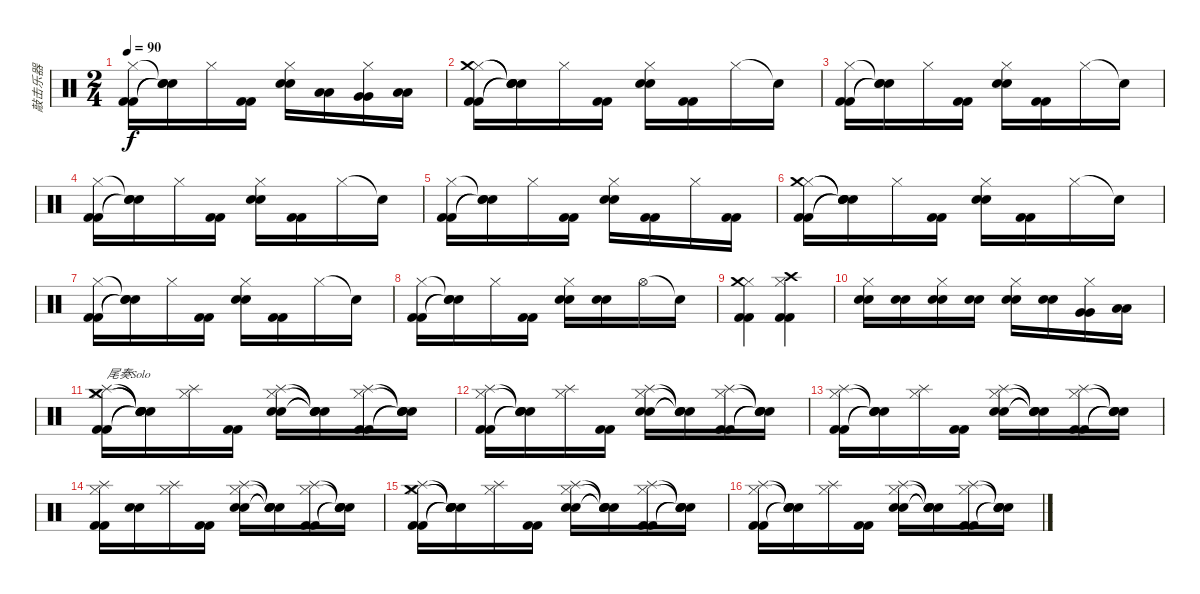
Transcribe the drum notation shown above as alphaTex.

\track ("敲击乐器" "敲击乐器") {instrument percussion}
\staff {score}
\articulation defaults
\ts (2 4)
\tempo 90
\clef neutral
\ks c
("Hi-Hat (closed)" "Kick (hit) 2" "Kick (hit) 2").16{dy f} ("Snare (hit)"{t} "Snare (hit)"{t} "Snare (hit)"{t}).16 "Hi-Hat (closed)".16 ("Kick (hit) 2" "Kick (hit) 2").16 ("Hi-Hat (closed)" "Snare (hit) 2" "Snare (hit) 2").16 ("Low Tom (hit)" "Low Tom (hit)").16 ("Hi-Hat (closed)" "Very Low Tom (hit)" "Very Low Tom (hit)").16 ("Low Floor Tom (hit)" "Low Floor Tom (hit)").16 |
("Hi-Hat (closed)" "Crash medium (hit)" "Kick (hit) 2" "Kick (hit) 2").16 ("Snare (hit)"{t} "Snare (hit)"{t} "Snare (hit)"{t} "Snare (hit)"{t}).16 "Hi-Hat (closed)".16 ("Kick (hit) 2" "Kick (hit) 2").16 ("Hi-Hat (closed)" "Electric Snare (hit)" "Electric Snare (hit)").16 ("Kick (hit) 2" "Kick (hit) 2").16 "Hi-Hat (closed)".16 "Snare (hit)"{t}.16 |
("Hi-Hat (closed)" "Kick (hit) 2" "Kick (hit) 2").16 ("Snare (hit)"{t} "Snare (hit)"{t} "Snare (hit)"{t}).16 "Hi-Hat (closed)".16 ("Kick (hit) 2" "Kick (hit) 2").16 ("Hi-Hat (closed)" "Electric Snare (hit)" "Electric Snare (hit)").16 ("Kick (hit) 2" "Kick (hit) 2").16 "Hi-Hat (closed)".16 "Snare (hit)"{t}.16 |
("Hi-Hat (closed)" "Kick (hit) 2" "Kick (hit) 2").16 ("Snare (hit)"{t} "Snare (hit)"{t} "Snare (hit)"{t}).16 "Hi-Hat (closed)".16 ("Kick (hit) 2" "Kick (hit) 2").16 ("Hi-Hat (closed)" "Electric Snare (hit)" "Electric Snare (hit)").16 ("Kick (hit) 2" "Kick (hit) 2").16 "Hi-Hat (closed)".16 "Snare (hit)"{t}.16 |
("Hi-Hat (closed)" "Kick (hit) 2" "Kick (hit) 2").16 ("Snare (hit)"{t} "Snare (hit)"{t} "Snare (hit)"{t}).16 "Hi-Hat (closed)".16 ("Kick (hit) 2" "Kick (hit) 2").16 ("Hi-Hat (closed)" "Electric Snare (hit)" "Electric Snare (hit)").16 ("Kick (hit) 2" "Kick (hit) 2").16 "Hi-Hat (closed)".16 ("Kick (hit) 2" "Kick (hit) 2").16 |
("Hi-Hat (closed)" "Crash medium (hit)" "Kick (hit) 2" "Kick (hit) 2").16 ("Snare (hit)"{t} "Snare (hit)"{t} "Snare (hit)"{t} "Snare (hit)"{t}).16 "Hi-Hat (closed)".16 ("Kick (hit) 2" "Kick (hit) 2").16 ("Hi-Hat (closed)" "Electric Snare (hit)" "Electric Snare (hit)").16 ("Kick (hit) 2" "Kick (hit) 2").16 "Hi-Hat (closed)".16 "Snare (hit)"{t}.16 |
("Hi-Hat (closed)" "Kick (hit) 2" "Kick (hit) 2").16 ("Snare (hit)"{t} "Snare (hit)"{t} "Snare (hit)"{t}).16 "Hi-Hat (closed)".16 ("Kick (hit) 2" "Kick (hit) 2").16 ("Hi-Hat (closed)" "Electric Snare (hit)" "Electric Snare (hit)").16 ("Kick (hit) 2" "Kick (hit) 2").16 "Hi-Hat (closed)".16 "Snare (hit)"{t}.16 |
("Hi-Hat (closed)" "Kick (hit) 2" "Kick (hit) 2").16 ("Snare (hit)"{t} "Snare (hit)"{t} "Snare (hit)"{t}).16 "Hi-Hat (closed)".16 ("Kick (hit) 2" "Kick (hit) 2").16 ("Hi-Hat (closed)" "Snare (hit) 2" "Snare (hit) 2").16 ("Snare (hit) 2" "Snare (hit) 2").16 "Hi-Hat (open)".16 "Snare (hit)"{t}.16 |
("Hi-Hat (closed)" "Crash medium (hit)" "Kick (hit) 2" "Kick (hit) 2").4 ("Hi-Hat (closed)" "Crash high (hit)" "Kick (hit) 2" "Kick (hit) 2").4 |
("Hi-Hat (closed)" "Snare (hit) 2" "Snare (hit) 2").16 ("Snare (hit) 2" "Snare (hit) 2").16 ("Hi-Hat (closed)" "Snare (hit) 2" "Snare (hit) 2").16 ("Snare (hit) 2" "Snare (hit) 2").16 ("Hi-Hat (closed)" "Snare (hit) 2" "Snare (hit) 2").16 ("Snare (hit) 2" "Snare (hit) 2").16 ("Hi-Hat (closed)" "Very Low Tom (hit)" "Very Low Tom (hit)").16 ("Low Floor Tom (hit)" "Low Floor Tom (hit)").16 |
("Hi-Hat (closed)" "Splash (hit)" "Crash medium (hit)" "Kick (hit) 2" "Kick (hit) 2").16{txt "尾奏Solo"} ("Snare (hit)"{t} "Snare (hit)"{t} "Snare (hit)"{t} "Snare (hit)"{t} "Snare (hit)"{t}).16 ("Hi-Hat (closed)" "Splash (hit)").16 ("Kick (hit) 2" "Kick (hit) 2").16 ("Hi-Hat (closed)" "Splash (hit)" "Electric Snare (hit)" "Electric Snare (hit)").16 ("Snare (hit)"{t} "Snare (hit)"{t} "Snare (hit)"{t} "Snare (hit)"{t}).16 ("Hi-Hat (closed)" "Splash (hit)" "Kick (hit) 2" "Kick (hit) 2").16 ("Snare (hit)"{t} "Snare (hit)"{t} "Snare (hit)"{t} "Snare (hit)"{t}).16 |
("Hi-Hat (closed)" "Splash (hit)" "Kick (hit) 2" "Kick (hit) 2").16 ("Snare (hit)"{t} "Snare (hit)"{t} "Snare (hit)"{t} "Snare (hit)"{t}).16 ("Hi-Hat (closed)" "Splash (hit)").16 ("Kick (hit) 2" "Kick (hit) 2").16 ("Hi-Hat (closed)" "Splash (hit)" "Electric Snare (hit)" "Electric Snare (hit)").16 ("Snare (hit)"{t} "Snare (hit)"{t} "Snare (hit)"{t} "Snare (hit)"{t}).16 ("Hi-Hat (closed)" "Splash (hit)" "Kick (hit) 2" "Kick (hit) 2").16 ("Snare (hit)"{t} "Snare (hit)"{t} "Snare (hit)"{t} "Snare (hit)"{t}).16 |
("Hi-Hat (closed)" "Splash (hit)" "Kick (hit) 2" "Kick (hit) 2").16 ("Snare (hit)"{t} "Snare (hit)"{t} "Snare (hit)"{t} "Snare (hit)"{t}).16 ("Hi-Hat (closed)" "Splash (hit)").16 ("Kick (hit) 2" "Kick (hit) 2").16 ("Hi-Hat (closed)" "Splash (hit)" "Electric Snare (hit)" "Electric Snare (hit)").16 ("Snare (hit)"{t} "Snare (hit)"{t} "Snare (hit)"{t} "Snare (hit)"{t}).16 ("Hi-Hat (closed)" "Splash (hit)" "Kick (hit) 2" "Kick (hit) 2").16 ("Snare (hit)"{t} "Snare (hit)"{t} "Snare (hit)"{t} "Snare (hit)"{t}).16 |
("Hi-Hat (closed)" "Splash (hit)" "Kick (hit) 2" "Kick (hit) 2").16 ("Electric Snare (hit)" "Electric Snare (hit)").16 ("Hi-Hat (closed)" "Splash (hit)").16 ("Kick (hit) 2" "Kick (hit) 2").16 ("Hi-Hat (closed)" "Splash (hit)" "Electric Snare (hit)" "Electric Snare (hit)").16 ("Snare (hit)"{t} "Snare (hit)"{t} "Snare (hit)"{t} "Snare (hit)"{t}).16 ("Hi-Hat (closed)" "Splash (hit)" "Kick (hit) 2" "Kick (hit) 2").16 ("Snare (hit)"{t} "Snare (hit)"{t} "Snare (hit)"{t} "Snare (hit)"{t}).16 |
("Hi-Hat (closed)" "Splash (hit)" "Crash medium (hit)" "Kick (hit) 2" "Kick (hit) 2").16 ("Snare (hit)"{t} "Snare (hit)"{t} "Snare (hit)"{t} "Snare (hit)"{t} "Snare (hit)"{t}).16 ("Hi-Hat (closed)" "Splash (hit)").16 ("Kick (hit) 2" "Kick (hit) 2").16 ("Hi-Hat (closed)" "Splash (hit)" "Electric Snare (hit)" "Electric Snare (hit)").16 ("Snare (hit)"{t} "Snare (hit)"{t} "Snare (hit)"{t} "Snare (hit)"{t}).16 ("Hi-Hat (closed)" "Splash (hit)" "Kick (hit) 2" "Kick (hit) 2").16 ("Snare (hit)"{t} "Snare (hit)"{t} "Snare (hit)"{t} "Snare (hit)"{t}).16 |
("Hi-Hat (closed)" "Splash (hit)" "Kick (hit) 2" "Kick (hit) 2").16 ("Snare (hit)"{t} "Snare (hit)"{t} "Snare (hit)"{t} "Snare (hit)"{t}).16 ("Hi-Hat (closed)" "Splash (hit)").16 ("Kick (hit) 2" "Kick (hit) 2").16 ("Hi-Hat (closed)" "Splash (hit)" "Electric Snare (hit)" "Electric Snare (hit)").16 ("Snare (hit)"{t} "Snare (hit)"{t} "Snare (hit)"{t} "Snare (hit)"{t}).16 ("Hi-Hat (closed)" "Splash (hit)" "Kick (hit) 2" "Kick (hit) 2").16 ("Snare (hit)"{t} "Snare (hit)"{t} "Snare (hit)"{t} "Snare (hit)"{t}).16
